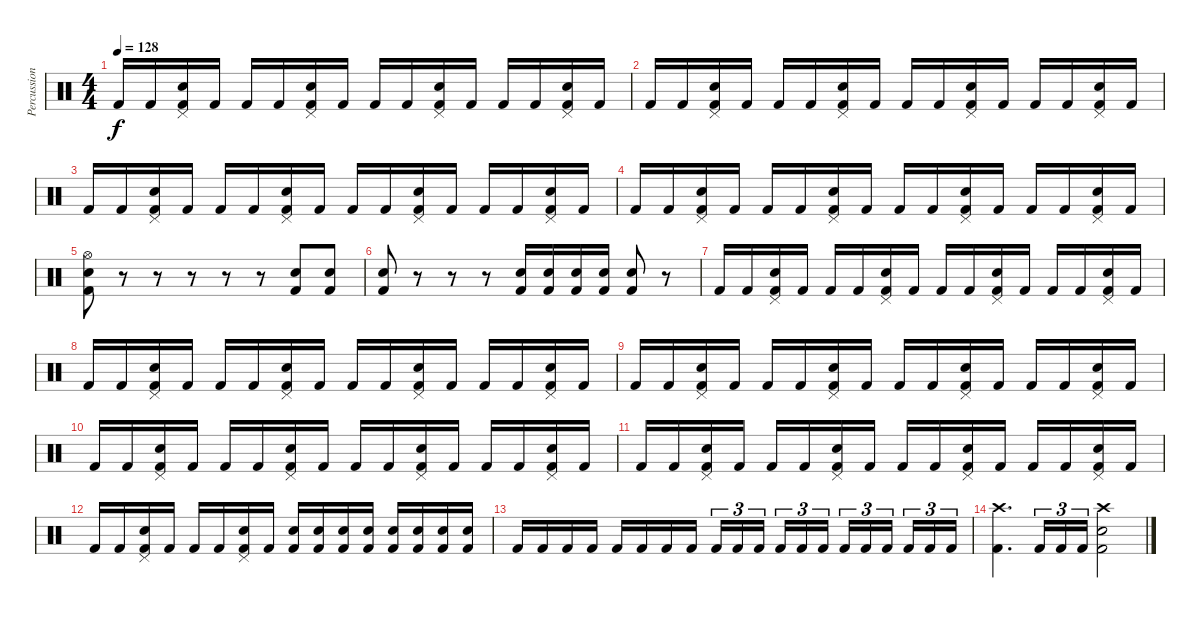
\track ("Percussion" "Percussion") {instrument percussion}
\staff {score}
\articulation defaults
\ts (4 4)
\tempo 128
\clef neutral
\ks c "Kick (hit) 2".16{dy f} "Kick (hit) 2".16
("Pedal Hi-Hat (hit)" "Snare (hit) 2" "Kick (hit) 2").16 "Kick (hit) 2".16 "Kick (hit) 2".16 "Kick (hit) 2".16 ("Pedal Hi-Hat (hit)" "Snare (hit) 2" "Kick (hit) 2").16 "Kick (hit) 2".16 "Kick (hit) 2".16 "Kick (hit) 2".16 ("Pedal Hi-Hat (hit)" "Snare (hit) 2" "Kick (hit) 2").16 "Kick (hit) 2".16 "Kick (hit) 2".16 "Kick (hit) 2".16 ("Pedal Hi-Hat (hit)" "Snare (hit) 2" "Kick (hit) 2").16 "Kick (hit) 2".16 |
"Kick (hit) 2".16 "Kick (hit) 2".16 ("Pedal Hi-Hat (hit)" "Snare (hit) 2" "Kick (hit) 2").16 "Kick (hit) 2".16 "Kick (hit) 2".16 "Kick (hit) 2".16 ("Pedal Hi-Hat (hit)" "Snare (hit) 2" "Kick (hit) 2").16 "Kick (hit) 2".16 "Kick (hit) 2".16 "Kick (hit) 2".16 ("Pedal Hi-Hat (hit)" "Snare (hit) 2" "Kick (hit) 2").16 "Kick (hit) 2".16 "Kick (hit) 2".16 "Kick (hit) 2".16 ("Pedal Hi-Hat (hit)" "Snare (hit) 2" "Kick (hit) 2").16 "Kick (hit) 2".16 |
"Kick (hit) 2".16 "Kick (hit) 2".16 ("Pedal Hi-Hat (hit)" "Snare (hit) 2" "Kick (hit) 2").16 "Kick (hit) 2".16 "Kick (hit) 2".16 "Kick (hit) 2".16 ("Pedal Hi-Hat (hit)" "Snare (hit) 2" "Kick (hit) 2").16 "Kick (hit) 2".16 "Kick (hit) 2".16 "Kick (hit) 2".16 ("Pedal Hi-Hat (hit)" "Snare (hit) 2" "Kick (hit) 2").16 "Kick (hit) 2".16 "Kick (hit) 2".16 "Kick (hit) 2".16 ("Pedal Hi-Hat (hit)" "Snare (hit) 2" "Kick (hit) 2").16 "Kick (hit) 2".16 |
"Kick (hit) 2".16 "Kick (hit) 2".16 ("Pedal Hi-Hat (hit)" "Snare (hit) 2" "Kick (hit) 2").16 "Kick (hit) 2".16 "Kick (hit) 2".16 "Kick (hit) 2".16 ("Pedal Hi-Hat (hit)" "Snare (hit) 2" "Kick (hit) 2").16 "Kick (hit) 2".16 "Kick (hit) 2".16 "Kick (hit) 2".16 ("Pedal Hi-Hat (hit)" "Snare (hit) 2" "Kick (hit) 2").16 "Kick (hit) 2".16 "Kick (hit) 2".16 "Kick (hit) 2".16 ("Pedal Hi-Hat (hit)" "Snare (hit) 2" "Kick (hit) 2").16 "Kick (hit) 2".16 |
("Hi-Hat (open)" "Snare (hit) 2" "Kick (hit) 2").8 r.8 r.8 r.8 r.8 r.8 ("Snare (hit) 2" "Kick (hit) 2").8 ("Snare (hit) 2" "Kick (hit) 2").8 |
("Snare (hit) 2" "Kick (hit) 2").8 r.8 r.8 r.8 ("Snare (hit) 2" "Kick (hit) 2").16 ("Snare (hit) 2" "Kick (hit) 2").16 ("Snare (hit) 2" "Kick (hit) 2").16 ("Snare (hit) 2" "Kick (hit) 2").16 ("Snare (hit) 2" "Kick (hit) 2").8 r.8 |
"Kick (hit) 2".16 "Kick (hit) 2".16 ("Pedal Hi-Hat (hit)" "Snare (hit) 2" "Kick (hit) 2").16 "Kick (hit) 2".16 "Kick (hit) 2".16 "Kick (hit) 2".16 ("Pedal Hi-Hat (hit)" "Snare (hit) 2" "Kick (hit) 2").16 "Kick (hit) 2".16 "Kick (hit) 2".16 "Kick (hit) 2".16 ("Pedal Hi-Hat (hit)" "Snare (hit) 2" "Kick (hit) 2").16 "Kick (hit) 2".16 "Kick (hit) 2".16 "Kick (hit) 2".16 ("Pedal Hi-Hat (hit)" "Snare (hit) 2" "Kick (hit) 2").16 "Kick (hit) 2".16 |
"Kick (hit) 2".16 "Kick (hit) 2".16 ("Pedal Hi-Hat (hit)" "Snare (hit) 2" "Kick (hit) 2").16 "Kick (hit) 2".16 "Kick (hit) 2".16 "Kick (hit) 2".16 ("Pedal Hi-Hat (hit)" "Snare (hit) 2" "Kick (hit) 2").16 "Kick (hit) 2".16 "Kick (hit) 2".16 "Kick (hit) 2".16 ("Pedal Hi-Hat (hit)" "Snare (hit) 2" "Kick (hit) 2").16 "Kick (hit) 2".16 "Kick (hit) 2".16 "Kick (hit) 2".16 ("Pedal Hi-Hat (hit)" "Snare (hit) 2" "Kick (hit) 2").16 "Kick (hit) 2".16 |
"Kick (hit) 2".16 "Kick (hit) 2".16 ("Pedal Hi-Hat (hit)" "Snare (hit) 2" "Kick (hit) 2").16 "Kick (hit) 2".16 "Kick (hit) 2".16 "Kick (hit) 2".16 ("Pedal Hi-Hat (hit)" "Snare (hit) 2" "Kick (hit) 2").16 "Kick (hit) 2".16 "Kick (hit) 2".16 "Kick (hit) 2".16 ("Pedal Hi-Hat (hit)" "Snare (hit) 2" "Kick (hit) 2").16 "Kick (hit) 2".16 "Kick (hit) 2".16 "Kick (hit) 2".16 ("Pedal Hi-Hat (hit)" "Snare (hit) 2" "Kick (hit) 2").16 "Kick (hit) 2".16 |
"Kick (hit) 2".16 "Kick (hit) 2".16 ("Pedal Hi-Hat (hit)" "Snare (hit) 2" "Kick (hit) 2").16 "Kick (hit) 2".16 "Kick (hit) 2".16 "Kick (hit) 2".16 ("Pedal Hi-Hat (hit)" "Snare (hit) 2" "Kick (hit) 2").16 "Kick (hit) 2".16 "Kick (hit) 2".16 "Kick (hit) 2".16 ("Pedal Hi-Hat (hit)" "Snare (hit) 2" "Kick (hit) 2").16 "Kick (hit) 2".16 "Kick (hit) 2".16 "Kick (hit) 2".16 ("Pedal Hi-Hat (hit)" "Snare (hit) 2" "Kick (hit) 2").16 "Kick (hit) 2".16 |
"Kick (hit) 2".16 "Kick (hit) 2".16 ("Pedal Hi-Hat (hit)" "Snare (hit) 2" "Kick (hit) 2").16 "Kick (hit) 2".16 "Kick (hit) 2".16 "Kick (hit) 2".16 ("Pedal Hi-Hat (hit)" "Snare (hit) 2" "Kick (hit) 2").16 "Kick (hit) 2".16 "Kick (hit) 2".16 "Kick (hit) 2".16 ("Pedal Hi-Hat (hit)" "Snare (hit) 2" "Kick (hit) 2").16 "Kick (hit) 2".16 "Kick (hit) 2".16 "Kick (hit) 2".16 ("Pedal Hi-Hat (hit)" "Snare (hit) 2" "Kick (hit) 2").16 "Kick (hit) 2".16 |
"Kick (hit) 2".16 "Kick (hit) 2".16 ("Pedal Hi-Hat (hit)" "Snare (hit) 2" "Kick (hit) 2").16 "Kick (hit) 2".16 "Kick (hit) 2".16 "Kick (hit) 2".16 ("Pedal Hi-Hat (hit)" "Snare (hit) 2" "Kick (hit) 2").16 "Kick (hit) 2".16 ("Snare (hit) 2" "Kick (hit) 2").16 ("Snare (hit) 2" "Kick (hit) 2").16 ("Snare (hit) 2" "Kick (hit) 2").16 ("Snare (hit) 2" "Kick (hit) 2").16 ("Snare (hit) 2" "Kick (hit) 2").16 ("Snare (hit) 2" "Kick (hit) 2").16 ("Snare (hit) 2" "Kick (hit) 2").16 ("Snare (hit) 2" "Kick (hit) 2").16 |
"Kick (hit) 2".16 "Kick (hit) 2".16 "Kick (hit) 2".16 "Kick (hit) 2".16 "Kick (hit) 2".16 "Kick (hit) 2".16 "Kick (hit) 2".16 "Kick (hit) 2".16 "Kick (hit) 2".16{tu (3 2)} "Kick (hit) 2".16{tu (3 2)} "Kick (hit) 2".16{tu (3 2) beam splitsecondary} "Kick (hit) 2".16{tu (3 2)} "Kick (hit) 2".16{tu (3 2)} "Kick (hit) 2".16{tu (3 2)} "Kick (hit) 2".16{tu (3 2)} "Kick (hit) 2".16{tu (3 2)} "Kick (hit) 2".16{tu (3 2) beam splitsecondary} "Kick (hit) 2".16{tu (3 2)} "Kick (hit) 2".16{tu (3 2)} "Kick (hit) 2".16{tu (3 2)} |
("Crash high (hit)" "Kick (hit) 2").4{d} "Kick (hit) 2".16{tu (3 2)} "Kick (hit) 2".16{tu (3 2)} "Kick (hit) 2".16{tu (3 2)} ("Crash high (hit)" "Snare (hit) 2" "Kick (hit) 2").2
